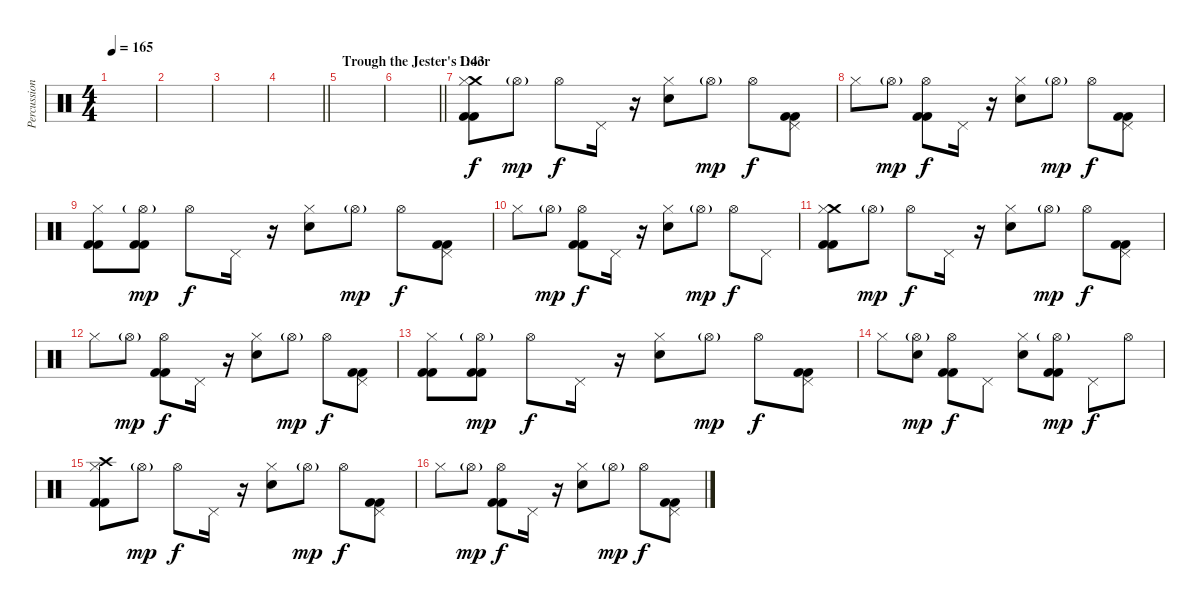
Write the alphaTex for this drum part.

\track ("Percussion" "Percussion") {instrument percussion}
\staff {score}
\articulation defaults
\ts (4 4)
\tempo 165
\clef neutral
\ks c
|
|
|
\barLineRight lightlight
|
\section ("" "Trough the Jester's Door")
|
\barLineRight lightlight
|
\section ("" "1:43")
("Crash medium (hit)" "Hi-Hat (closed)" "Kick (hit) 2" "Kick (hit) 2").8 "Hi-Hat (open)"{g}.8{dy mp} "Hi-Hat (open)".8{dy f} "Pedal Hi-Hat (hit)".16 r.16 ("Hi-Hat (closed)" "Electric Snare (hit)").8 "Hi-Hat (open)"{g}.8{dy mp} "Hi-Hat (open)".8{dy f} ("Pedal Hi-Hat (hit)" "Kick (hit) 2" "Kick (hit) 2").8 |
"Hi-Hat (closed)".8 "Hi-Hat (open)"{g}.8{dy mp} ("Hi-Hat (open)" "Kick (hit) 2" "Kick (hit) 2").8{dy f} "Pedal Hi-Hat (hit)".16 r.16 ("Hi-Hat (closed)" "Electric Snare (hit)").8 "Hi-Hat (open)"{g}.8{dy mp} "Hi-Hat (open)".8{dy f} ("Pedal Hi-Hat (hit)" "Kick (hit) 2" "Kick (hit) 2").8 |
("Hi-Hat (closed)" "Kick (hit) 2" "Kick (hit) 2").8 ("Hi-Hat (open)"{g} "Kick (hit) 2" "Kick (hit) 2").8{dy mp} "Hi-Hat (open)".8{dy f} "Pedal Hi-Hat (hit)".16 r.16 ("Hi-Hat (closed)" "Electric Snare (hit)").8 "Hi-Hat (open)"{g}.8{dy mp} "Hi-Hat (open)".8{dy f} ("Pedal Hi-Hat (hit)" "Kick (hit) 2" "Kick (hit) 2").8 |
"Hi-Hat (closed)".8 "Hi-Hat (open)"{g}.8{dy mp} ("Hi-Hat (open)" "Kick (hit) 2" "Kick (hit) 2").8{dy f} "Pedal Hi-Hat (hit)".16 r.16 ("Hi-Hat (closed)" "Electric Snare (hit)").8 "Hi-Hat (open)"{g}.8{dy mp} "Hi-Hat (open)".8{dy f} "Pedal Hi-Hat (hit)".8 |
("Crash medium (hit)" "Hi-Hat (closed)" "Kick (hit) 2" "Kick (hit) 2").8 "Hi-Hat (open)"{g}.8{dy mp} "Hi-Hat (open)".8{dy f} "Pedal Hi-Hat (hit)".16 r.16 ("Hi-Hat (closed)" "Electric Snare (hit)").8 "Hi-Hat (open)"{g}.8{dy mp} "Hi-Hat (open)".8{dy f} ("Pedal Hi-Hat (hit)" "Kick (hit) 2" "Kick (hit) 2").8 |
"Hi-Hat (closed)".8 "Hi-Hat (open)"{g}.8{dy mp} ("Hi-Hat (open)" "Kick (hit) 2" "Kick (hit) 2").8{dy f} "Pedal Hi-Hat (hit)".16 r.16 ("Hi-Hat (closed)" "Electric Snare (hit)").8 "Hi-Hat (open)"{g}.8{dy mp} "Hi-Hat (open)".8{dy f} ("Pedal Hi-Hat (hit)" "Kick (hit) 2" "Kick (hit) 2").8 |
("Hi-Hat (closed)" "Kick (hit) 2" "Kick (hit) 2").8 ("Hi-Hat (open)"{g} "Kick (hit) 2" "Kick (hit) 2").8{dy mp} "Hi-Hat (open)".8{dy f} "Pedal Hi-Hat (hit)".16 r.16 ("Hi-Hat (closed)" "Electric Snare (hit)").8 "Hi-Hat (open)"{g}.8{dy mp} "Hi-Hat (open)".8{dy f} ("Pedal Hi-Hat (hit)" "Kick (hit) 2" "Kick (hit) 2").8 |
"Hi-Hat (closed)".8 ("Hi-Hat (open)"{g} "Electric Snare (hit)").8{dy mp} ("Hi-Hat (open)" "Kick (hit) 2" "Kick (hit) 2").8{dy f} "Pedal Hi-Hat (hit)".8 ("Hi-Hat (closed)" "Electric Snare (hit)").8 ("Hi-Hat (open)"{g} "Kick (hit) 2" "Kick (hit) 2").8{dy mp} "Pedal Hi-Hat (hit)".8{dy f} "Hi-Hat (open)".8 |
("Crash high (hit)" "Hi-Hat (closed)" "Kick (hit) 2" "Kick (hit) 2").8 "Hi-Hat (open)"{g}.8{dy mp} "Hi-Hat (open)".8{dy f} "Pedal Hi-Hat (hit)".16 r.16 ("Hi-Hat (closed)" "Electric Snare (hit)").8 "Hi-Hat (open)"{g}.8{dy mp} "Hi-Hat (open)".8{dy f} ("Pedal Hi-Hat (hit)" "Kick (hit) 2" "Kick (hit) 2").8 |
"Hi-Hat (closed)".8 "Hi-Hat (open)"{g}.8{dy mp} ("Hi-Hat (open)" "Kick (hit) 2" "Kick (hit) 2").8{dy f} "Pedal Hi-Hat (hit)".16 r.16 ("Hi-Hat (closed)" "Electric Snare (hit)").8 "Hi-Hat (open)"{g}.8{dy mp} "Hi-Hat (open)".8{dy f} ("Pedal Hi-Hat (hit)" "Kick (hit) 2" "Kick (hit) 2").8
